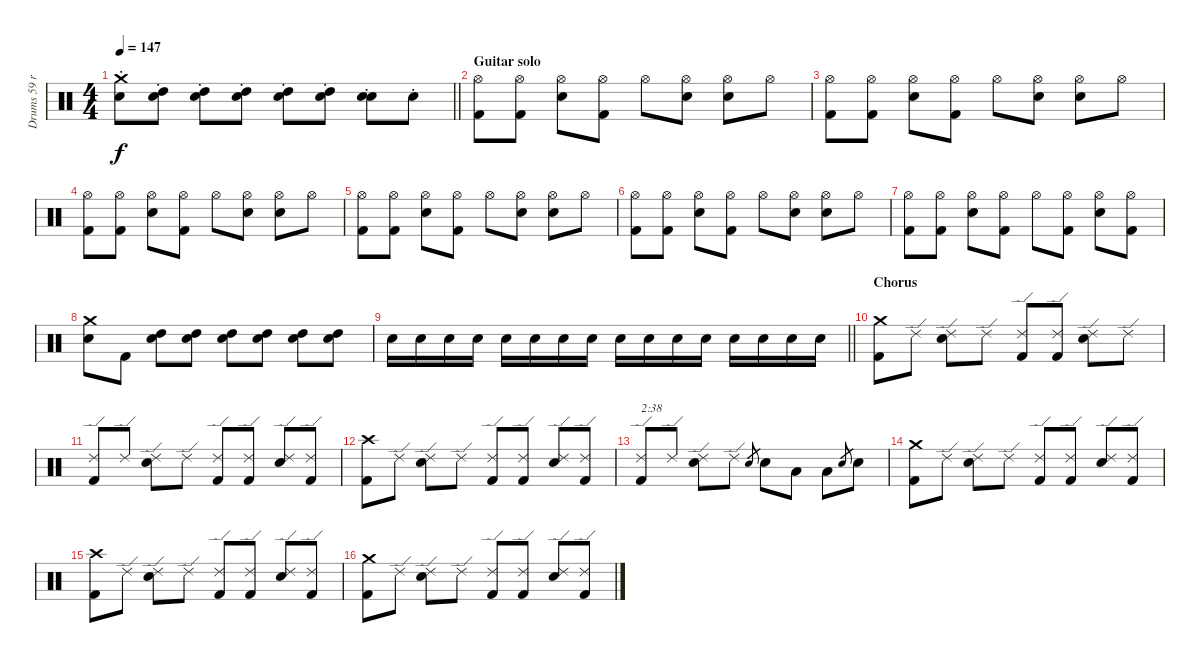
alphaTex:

\track ("Drums 59 ride" "Drums 59 r") {mute instrument percussion}
\staff {score}
\articulation defaults
\ts (4 4)
\tempo 147
\clef neutral
\barLineRight lightlight
\ks c
("Crash medium (hit)"{st} "Snare (hit) 2"{st}).8{dy f} ("High Tom (hit)" "Snare (hit) 2"{st}).8 ("High Tom (hit)" "Snare (hit) 2"{st}).8 ("High Tom (hit)" "Snare (hit) 2"{st}).8 ("High Tom (hit)" "Snare (hit) 2"{st}).8 ("High Tom (hit)" "Snare (hit) 2"{st}).8 ("Snare (hit) 2" "Snare (hit) 2"{st}).8 "Snare (hit) 2"{st}.8 |
\section ("" "Guitar solo")
("Hi-Hat (open)" "Kick (hit) 2").8 ("Hi-Hat (open)" "Kick (hit) 2").8 ("Hi-Hat (open)" "Snare (hit) 2").8 ("Hi-Hat (open)" "Kick (hit) 2").8 "Hi-Hat (open)".8 ("Hi-Hat (open)" "Snare (hit) 2").8 ("Hi-Hat (open)" "Snare (hit) 2").8 "Hi-Hat (open)".8 |
("Hi-Hat (open)" "Kick (hit) 2").8 ("Hi-Hat (open)" "Kick (hit) 2").8 ("Hi-Hat (open)" "Snare (hit) 2").8 ("Hi-Hat (open)" "Kick (hit) 2").8 "Hi-Hat (open)".8 ("Hi-Hat (open)" "Snare (hit) 2").8 ("Hi-Hat (open)" "Snare (hit) 2").8 "Hi-Hat (open)".8 |
("Hi-Hat (open)" "Kick (hit) 2").8 ("Hi-Hat (open)" "Kick (hit) 2").8 ("Hi-Hat (open)" "Snare (hit) 2").8 ("Hi-Hat (open)" "Kick (hit) 2").8 "Hi-Hat (open)".8 ("Hi-Hat (open)" "Snare (hit) 2").8 ("Hi-Hat (open)" "Snare (hit) 2").8 "Hi-Hat (open)".8 |
("Hi-Hat (open)" "Kick (hit) 2").8 ("Hi-Hat (open)" "Kick (hit) 2").8 ("Hi-Hat (open)" "Snare (hit) 2").8 ("Hi-Hat (open)" "Kick (hit) 2").8 "Hi-Hat (open)".8 ("Hi-Hat (open)" "Snare (hit) 2").8 ("Hi-Hat (open)" "Snare (hit) 2").8 "Hi-Hat (open)".8 |
("Hi-Hat (open)" "Kick (hit) 2").8 ("Hi-Hat (open)" "Kick (hit) 2").8 ("Hi-Hat (open)" "Snare (hit) 2").8 ("Hi-Hat (open)" "Kick (hit) 2").8 "Hi-Hat (open)".8 ("Hi-Hat (open)" "Snare (hit) 2").8 ("Hi-Hat (open)" "Snare (hit) 2").8 "Hi-Hat (open)".8 |
("Hi-Hat (open)" "Kick (hit) 2").8 ("Hi-Hat (open)" "Kick (hit) 2").8 ("Hi-Hat (open)" "Snare (hit) 2").8 ("Hi-Hat (open)" "Kick (hit) 2").8 "Hi-Hat (open)".8 ("Hi-Hat (open)" "Kick (hit) 2").8 ("Hi-Hat (open)" "Snare (hit) 2").8 ("Hi-Hat (open)" "Kick (hit) 2").8 |
("Crash medium (hit)" "Snare (hit) 2").8 "Kick (hit) 2".8 ("High Tom (hit)" "Snare (hit) 2").8 ("High Tom (hit)" "Snare (hit) 2").8 ("High Tom (hit)" "Snare (hit) 2").8 ("High Tom (hit)" "Snare (hit) 2").8 ("High Tom (hit)" "Snare (hit) 2").8 ("High Tom (hit)" "Snare (hit) 2").8 |
\barLineRight lightlight "Snare (hit) 2".16 "Snare (hit) 2".16 "Snare (hit) 2".16 "Snare (hit) 2".16 "Snare (hit) 2".16 "Snare (hit) 2".16 "Snare (hit) 2".16 "Snare (hit) 2".16 "Snare (hit) 2".16 "Snare (hit) 2".16 "Snare (hit) 2".16 "Snare (hit) 2".16 "Snare (hit) 2".16 "Snare (hit) 2".16 "Snare (hit) 2".16 "Snare (hit) 2".16
|
\section ("" "Chorus")
("Crash medium (hit)" "Kick (hit) 2").8 "Ride (edge) 2".8 ("Ride (edge) 2" "Snare (hit) 2").8 "Ride (edge) 2".8 ("Ride (edge) 2" "Kick (hit) 2").8 ("Ride (edge) 2" "Kick (hit) 2").8 ("Ride (edge) 2" "Snare (hit) 2").8 "Ride (edge) 2".8 |
("Ride (edge) 2" "Kick (hit) 2").8 "Ride (edge) 2".8 ("Ride (edge) 2" "Snare (hit) 2").8 "Ride (edge) 2".8 ("Ride (edge) 2" "Kick (hit) 2").8 ("Ride (edge) 2" "Kick (hit) 2").8 ("Ride (edge) 2" "Snare (hit) 2").8 ("Ride (edge) 2" "Kick (hit) 2").8 |
("Crash high (hit)" "Kick (hit) 2").8 "Ride (edge) 2".8 ("Ride (edge) 2" "Snare (hit) 2").8 "Ride (edge) 2".8 ("Ride (edge) 2" "Kick (hit) 2").8 ("Ride (edge) 2" "Kick (hit) 2").8 ("Ride (edge) 2" "Snare (hit) 2").8 ("Ride (edge) 2" "Kick (hit) 2").8 |
("Ride (edge) 2" "Kick (hit) 2").8{txt "2:38"} "Ride (edge) 2".8 ("Ride (edge) 2" "Snare (hit) 2").8 "Ride (edge) 2".8 "Snare (hit) 2".8{gr} "Snare (hit) 2".8 "Low Tom (hit)".8 "Low Tom (hit)".8 "Snare (hit) 2".8{gr} "Snare (hit) 2".8 |
("Crash medium (hit)" "Kick (hit) 2").8 "Ride (edge) 2".8 ("Ride (edge) 2" "Snare (hit) 2").8 "Ride (edge) 2".8 ("Ride (edge) 2" "Kick (hit) 2").8 ("Ride (edge) 2" "Kick (hit) 2").8 ("Ride (edge) 2" "Snare (hit) 2").8 ("Ride (edge) 2" "Kick (hit) 2").8 |
("Crash high (hit)" "Kick (hit) 2").8 "Ride (edge) 2".8 ("Ride (edge) 2" "Snare (hit) 2").8 "Ride (edge) 2".8 ("Ride (edge) 2" "Kick (hit) 2").8 ("Ride (edge) 2" "Kick (hit) 2").8 ("Ride (edge) 2" "Snare (hit) 2").8 ("Ride (edge) 2" "Kick (hit) 2").8 |
("Crash medium (hit)" "Kick (hit) 2").8 "Ride (edge) 2".8 ("Ride (edge) 2" "Snare (hit) 2").8 "Ride (edge) 2".8 ("Ride (edge) 2" "Kick (hit) 2").8 ("Ride (edge) 2" "Kick (hit) 2").8 ("Ride (edge) 2" "Snare (hit) 2").8 ("Ride (edge) 2" "Kick (hit) 2").8
